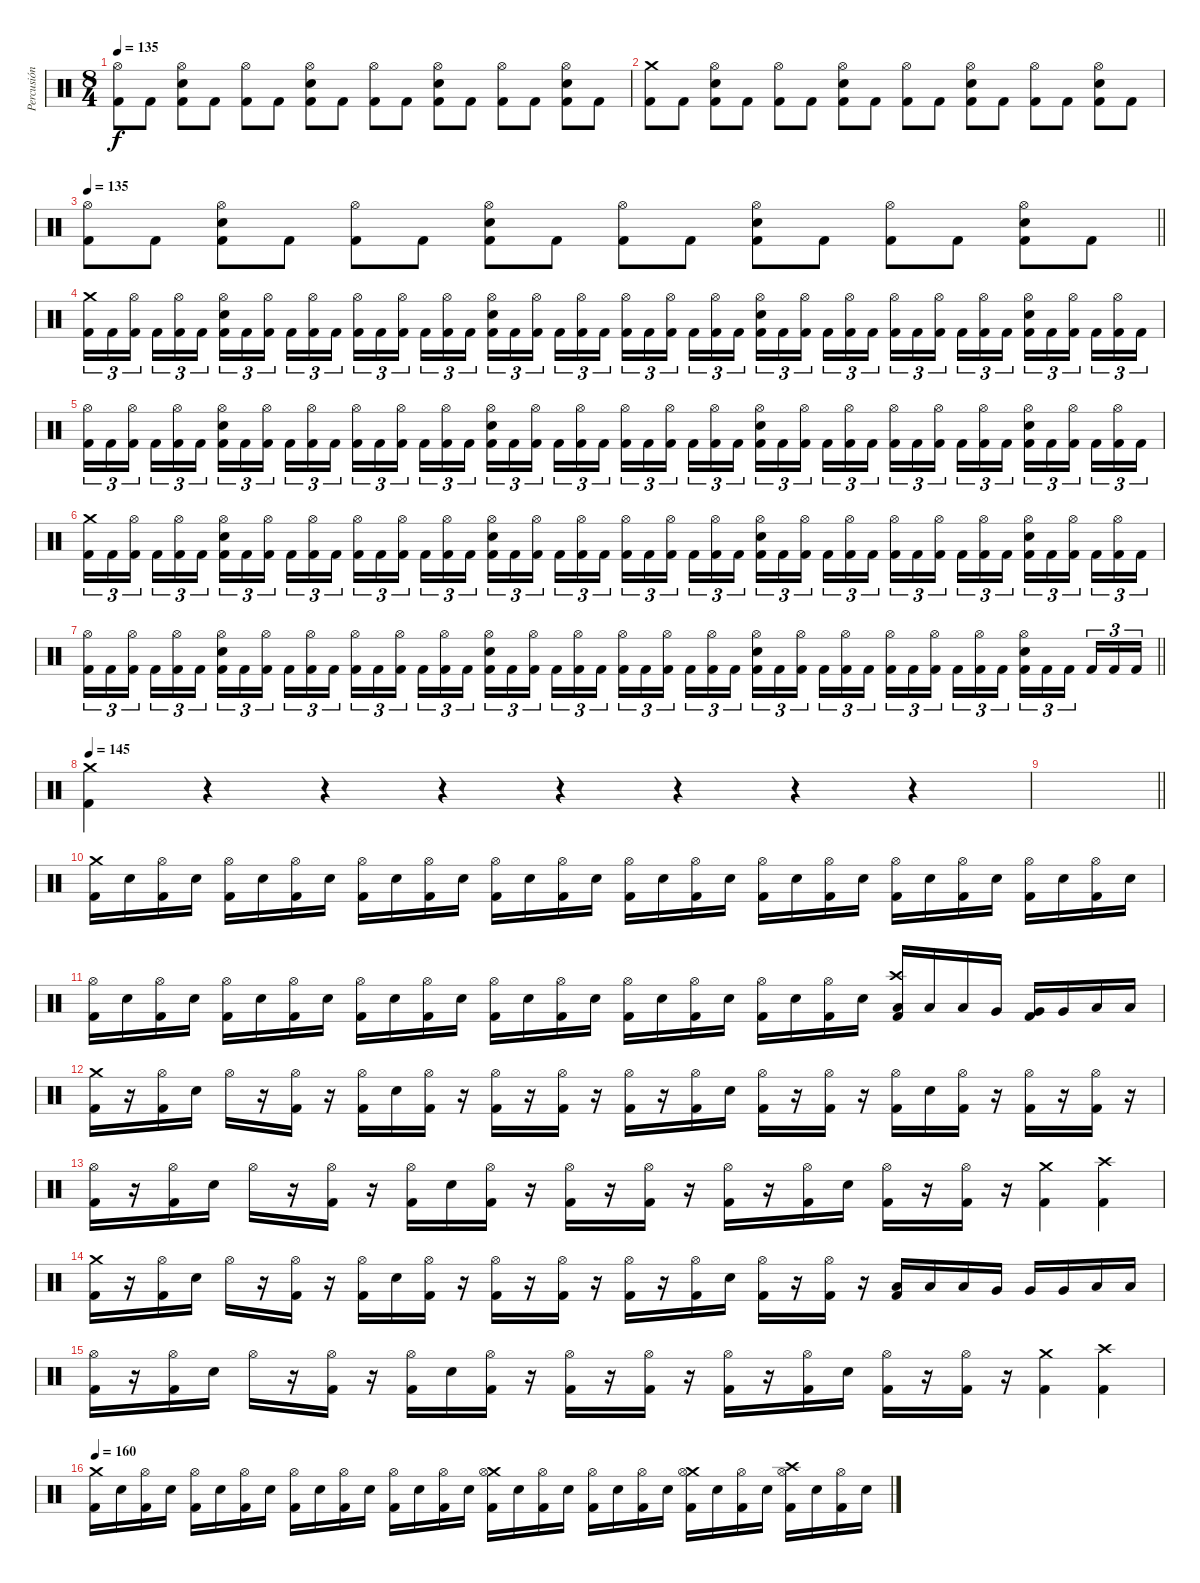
\track ("Percusión" "Percusión") {instrument percussion}
\staff {score}
\articulation defaults
\ts (8 4)
\tempo 135
\clef neutral
\ks c
("Hi-Hat (open)" "Kick (hit) 2").8{dy f} "Kick (hit) 2".8 ("Hi-Hat (open)" "Electric Snare (hit)" "Kick (hit) 2").8 "Kick (hit) 2".8 ("Hi-Hat (open)" "Kick (hit) 2").8 "Kick (hit) 2".8 ("Hi-Hat (open)" "Electric Snare (hit)" "Kick (hit) 2").8 "Kick (hit) 2".8 ("Hi-Hat (open)" "Kick (hit) 2").8 "Kick (hit) 2".8 ("Hi-Hat (open)" "Electric Snare (hit)" "Kick (hit) 2").8 "Kick (hit) 2".8 ("Hi-Hat (open)" "Kick (hit) 2").8 "Kick (hit) 2".8 ("Hi-Hat (open)" "Electric Snare (hit)" "Kick (hit) 2").8 "Kick (hit) 2".8 |
("Crash medium (hit)" "Kick (hit) 2").8 "Kick (hit) 2".8 ("Hi-Hat (open)" "Electric Snare (hit)" "Kick (hit) 2").8 "Kick (hit) 2".8 ("Hi-Hat (open)" "Kick (hit) 2").8 "Kick (hit) 2".8 ("Hi-Hat (open)" "Electric Snare (hit)" "Kick (hit) 2").8 "Kick (hit) 2".8 ("Hi-Hat (open)" "Kick (hit) 2").8 "Kick (hit) 2".8 ("Hi-Hat (open)" "Electric Snare (hit)" "Kick (hit) 2").8 "Kick (hit) 2".8 ("Hi-Hat (open)" "Kick (hit) 2").8 "Kick (hit) 2".8 ("Hi-Hat (open)" "Electric Snare (hit)" "Kick (hit) 2").8 "Kick (hit) 2".8 |
\tempo 135
\barLineRight lightlight
("Hi-Hat (open)" "Kick (hit) 2").8 "Kick (hit) 2".8 ("Hi-Hat (open)" "Electric Snare (hit)" "Kick (hit) 2").8 "Kick (hit) 2".8 ("Hi-Hat (open)" "Kick (hit) 2").8 "Kick (hit) 2".8 ("Hi-Hat (open)" "Electric Snare (hit)" "Kick (hit) 2").8 "Kick (hit) 2".8 ("Hi-Hat (open)" "Kick (hit) 2").8 "Kick (hit) 2".8 ("Hi-Hat (open)" "Electric Snare (hit)" "Kick (hit) 2").8 "Kick (hit) 2".8 ("Hi-Hat (open)" "Kick (hit) 2").8 "Kick (hit) 2".8 ("Hi-Hat (open)" "Electric Snare (hit)" "Kick (hit) 2").8 "Kick (hit) 2".8 |
("Crash medium (hit)" "Kick (hit) 2").16{tu (3 2)} "Kick (hit) 2".16{tu (3 2)} ("Hi-Hat (open)" "Kick (hit) 2").16{tu (3 2) beam splitsecondary} "Kick (hit) 2".16{tu (3 2)} ("Hi-Hat (open)" "Kick (hit) 2").16{tu (3 2)} "Kick (hit) 2".16{tu (3 2)} ("Hi-Hat (open)" "Electric Snare (hit)" "Kick (hit) 2").16{tu (3 2)} "Kick (hit) 2".16{tu (3 2)} ("Hi-Hat (open)" "Kick (hit) 2").16{tu (3 2) beam splitsecondary} "Kick (hit) 2".16{tu (3 2)} ("Hi-Hat (open)" "Kick (hit) 2").16{tu (3 2)} "Kick (hit) 2".16{tu (3 2)} ("Hi-Hat (open)" "Kick (hit) 2").16{tu (3 2)} "Kick (hit) 2".16{tu (3 2)} ("Hi-Hat (open)" "Kick (hit) 2").16{tu (3 2) beam splitsecondary} "Kick (hit) 2".16{tu (3 2)} ("Hi-Hat (open)" "Kick (hit) 2").16{tu (3 2)} "Kick (hit) 2".16{tu (3 2)} ("Hi-Hat (open)" "Electric Snare (hit)" "Kick (hit) 2").16{tu (3 2)} "Kick (hit) 2".16{tu (3 2)} ("Hi-Hat (open)" "Kick (hit) 2").16{tu (3 2) beam splitsecondary} "Kick (hit) 2".16{tu (3 2)} ("Hi-Hat (open)" "Kick (hit) 2").16{tu (3 2)} "Kick (hit) 2".16{tu (3 2)} ("Hi-Hat (open)" "Kick (hit) 2").16{tu (3 2)} "Kick (hit) 2".16{tu (3 2)} ("Hi-Hat (open)" "Kick (hit) 2").16{tu (3 2) beam splitsecondary} "Kick (hit) 2".16{tu (3 2)} ("Hi-Hat (open)" "Kick (hit) 2").16{tu (3 2)} "Kick (hit) 2".16{tu (3 2)} ("Hi-Hat (open)" "Electric Snare (hit)" "Kick (hit) 2").16{tu (3 2)} "Kick (hit) 2".16{tu (3 2)} ("Hi-Hat (open)" "Kick (hit) 2").16{tu (3 2) beam splitsecondary} "Kick (hit) 2".16{tu (3 2)} ("Hi-Hat (open)" "Kick (hit) 2").16{tu (3 2)} "Kick (hit) 2".16{tu (3 2)} ("Hi-Hat (open)" "Kick (hit) 2").16{tu (3 2)} "Kick (hit) 2".16{tu (3 2)} ("Hi-Hat (open)" "Kick (hit) 2").16{tu (3 2) beam splitsecondary} "Kick (hit) 2".16{tu (3 2)} ("Hi-Hat (open)" "Kick (hit) 2").16{tu (3 2)} "Kick (hit) 2".16{tu (3 2)} ("Hi-Hat (open)" "Electric Snare (hit)" "Kick (hit) 2").16{tu (3 2)} "Kick (hit) 2".16{tu (3 2)} ("Hi-Hat (open)" "Kick (hit) 2").16{tu (3 2) beam splitsecondary} "Kick (hit) 2".16{tu (3 2)} ("Hi-Hat (open)" "Kick (hit) 2").16{tu (3 2)} "Kick (hit) 2".16{tu (3 2)} |
("Hi-Hat (open)" "Kick (hit) 2").16{tu (3 2)} "Kick (hit) 2".16{tu (3 2)} ("Hi-Hat (open)" "Kick (hit) 2").16{tu (3 2) beam splitsecondary} "Kick (hit) 2".16{tu (3 2)} ("Hi-Hat (open)" "Kick (hit) 2").16{tu (3 2)} "Kick (hit) 2".16{tu (3 2)} ("Hi-Hat (open)" "Electric Snare (hit)" "Kick (hit) 2").16{tu (3 2)} "Kick (hit) 2".16{tu (3 2)} ("Hi-Hat (open)" "Kick (hit) 2").16{tu (3 2) beam splitsecondary} "Kick (hit) 2".16{tu (3 2)} ("Hi-Hat (open)" "Kick (hit) 2").16{tu (3 2)} "Kick (hit) 2".16{tu (3 2)} ("Hi-Hat (open)" "Kick (hit) 2").16{tu (3 2)} "Kick (hit) 2".16{tu (3 2)} ("Hi-Hat (open)" "Kick (hit) 2").16{tu (3 2) beam splitsecondary} "Kick (hit) 2".16{tu (3 2)} ("Hi-Hat (open)" "Kick (hit) 2").16{tu (3 2)} "Kick (hit) 2".16{tu (3 2)} ("Hi-Hat (open)" "Electric Snare (hit)" "Kick (hit) 2").16{tu (3 2)} "Kick (hit) 2".16{tu (3 2)} ("Hi-Hat (open)" "Kick (hit) 2").16{tu (3 2) beam splitsecondary} "Kick (hit) 2".16{tu (3 2)} ("Hi-Hat (open)" "Kick (hit) 2").16{tu (3 2)} "Kick (hit) 2".16{tu (3 2)} ("Hi-Hat (open)" "Kick (hit) 2").16{tu (3 2)} "Kick (hit) 2".16{tu (3 2)} ("Hi-Hat (open)" "Kick (hit) 2").16{tu (3 2) beam splitsecondary} "Kick (hit) 2".16{tu (3 2)} ("Hi-Hat (open)" "Kick (hit) 2").16{tu (3 2)} "Kick (hit) 2".16{tu (3 2)} ("Hi-Hat (open)" "Electric Snare (hit)" "Kick (hit) 2").16{tu (3 2)} "Kick (hit) 2".16{tu (3 2)} ("Hi-Hat (open)" "Kick (hit) 2").16{tu (3 2) beam splitsecondary} "Kick (hit) 2".16{tu (3 2)} ("Hi-Hat (open)" "Kick (hit) 2").16{tu (3 2)} "Kick (hit) 2".16{tu (3 2)} ("Hi-Hat (open)" "Kick (hit) 2").16{tu (3 2)} "Kick (hit) 2".16{tu (3 2)} ("Hi-Hat (open)" "Kick (hit) 2").16{tu (3 2) beam splitsecondary} "Kick (hit) 2".16{tu (3 2)} ("Hi-Hat (open)" "Kick (hit) 2").16{tu (3 2)} "Kick (hit) 2".16{tu (3 2)} ("Hi-Hat (open)" "Electric Snare (hit)" "Kick (hit) 2").16{tu (3 2)} "Kick (hit) 2".16{tu (3 2)} ("Hi-Hat (open)" "Kick (hit) 2").16{tu (3 2) beam splitsecondary} "Kick (hit) 2".16{tu (3 2)} ("Hi-Hat (open)" "Kick (hit) 2").16{tu (3 2)} "Kick (hit) 2".16{tu (3 2)} |
("Crash medium (hit)" "Kick (hit) 2").16{tu (3 2)} "Kick (hit) 2".16{tu (3 2)} ("Hi-Hat (open)" "Kick (hit) 2").16{tu (3 2) beam splitsecondary} "Kick (hit) 2".16{tu (3 2)} ("Hi-Hat (open)" "Kick (hit) 2").16{tu (3 2)} "Kick (hit) 2".16{tu (3 2)} ("Hi-Hat (open)" "Electric Snare (hit)" "Kick (hit) 2").16{tu (3 2)} "Kick (hit) 2".16{tu (3 2)} ("Hi-Hat (open)" "Kick (hit) 2").16{tu (3 2) beam splitsecondary} "Kick (hit) 2".16{tu (3 2)} ("Hi-Hat (open)" "Kick (hit) 2").16{tu (3 2)} "Kick (hit) 2".16{tu (3 2)} ("Hi-Hat (open)" "Kick (hit) 2").16{tu (3 2)} "Kick (hit) 2".16{tu (3 2)} ("Hi-Hat (open)" "Kick (hit) 2").16{tu (3 2) beam splitsecondary} "Kick (hit) 2".16{tu (3 2)} ("Hi-Hat (open)" "Kick (hit) 2").16{tu (3 2)} "Kick (hit) 2".16{tu (3 2)} ("Hi-Hat (open)" "Electric Snare (hit)" "Kick (hit) 2").16{tu (3 2)} "Kick (hit) 2".16{tu (3 2)} ("Hi-Hat (open)" "Kick (hit) 2").16{tu (3 2) beam splitsecondary} "Kick (hit) 2".16{tu (3 2)} ("Hi-Hat (open)" "Kick (hit) 2").16{tu (3 2)} "Kick (hit) 2".16{tu (3 2)} ("Hi-Hat (open)" "Kick (hit) 2").16{tu (3 2)} "Kick (hit) 2".16{tu (3 2)} ("Hi-Hat (open)" "Kick (hit) 2").16{tu (3 2) beam splitsecondary} "Kick (hit) 2".16{tu (3 2)} ("Hi-Hat (open)" "Kick (hit) 2").16{tu (3 2)} "Kick (hit) 2".16{tu (3 2)} ("Hi-Hat (open)" "Electric Snare (hit)" "Kick (hit) 2").16{tu (3 2)} "Kick (hit) 2".16{tu (3 2)} ("Hi-Hat (open)" "Kick (hit) 2").16{tu (3 2) beam splitsecondary} "Kick (hit) 2".16{tu (3 2)} ("Hi-Hat (open)" "Kick (hit) 2").16{tu (3 2)} "Kick (hit) 2".16{tu (3 2)} ("Hi-Hat (open)" "Kick (hit) 2").16{tu (3 2)} "Kick (hit) 2".16{tu (3 2)} ("Hi-Hat (open)" "Kick (hit) 2").16{tu (3 2) beam splitsecondary} "Kick (hit) 2".16{tu (3 2)} ("Hi-Hat (open)" "Kick (hit) 2").16{tu (3 2)} "Kick (hit) 2".16{tu (3 2)} ("Hi-Hat (open)" "Electric Snare (hit)" "Kick (hit) 2").16{tu (3 2)} "Kick (hit) 2".16{tu (3 2)} ("Hi-Hat (open)" "Kick (hit) 2").16{tu (3 2) beam splitsecondary} "Kick (hit) 2".16{tu (3 2)} ("Hi-Hat (open)" "Kick (hit) 2").16{tu (3 2)} "Kick (hit) 2".16{tu (3 2)} |
\barLineRight lightlight
("Hi-Hat (open)" "Kick (hit) 2").16{tu (3 2)} "Kick (hit) 2".16{tu (3 2)} ("Hi-Hat (open)" "Kick (hit) 2").16{tu (3 2) beam splitsecondary} "Kick (hit) 2".16{tu (3 2)} ("Hi-Hat (open)" "Kick (hit) 2").16{tu (3 2)} "Kick (hit) 2".16{tu (3 2)} ("Hi-Hat (open)" "Electric Snare (hit)" "Kick (hit) 2").16{tu (3 2)} "Kick (hit) 2".16{tu (3 2)} ("Hi-Hat (open)" "Kick (hit) 2").16{tu (3 2) beam splitsecondary} "Kick (hit) 2".16{tu (3 2)} ("Hi-Hat (open)" "Kick (hit) 2").16{tu (3 2)} "Kick (hit) 2".16{tu (3 2)} ("Hi-Hat (open)" "Kick (hit) 2").16{tu (3 2)} "Kick (hit) 2".16{tu (3 2)} ("Hi-Hat (open)" "Kick (hit) 2").16{tu (3 2) beam splitsecondary} "Kick (hit) 2".16{tu (3 2)} ("Hi-Hat (open)" "Kick (hit) 2").16{tu (3 2)} "Kick (hit) 2".16{tu (3 2)} ("Hi-Hat (open)" "Electric Snare (hit)" "Kick (hit) 2").16{tu (3 2)} "Kick (hit) 2".16{tu (3 2)} ("Hi-Hat (open)" "Kick (hit) 2").16{tu (3 2) beam splitsecondary} "Kick (hit) 2".16{tu (3 2)} ("Hi-Hat (open)" "Kick (hit) 2").16{tu (3 2)} "Kick (hit) 2".16{tu (3 2)} ("Hi-Hat (open)" "Kick (hit) 2").16{tu (3 2)} "Kick (hit) 2".16{tu (3 2)} ("Hi-Hat (open)" "Kick (hit) 2").16{tu (3 2) beam splitsecondary} "Kick (hit) 2".16{tu (3 2)} ("Hi-Hat (open)" "Kick (hit) 2").16{tu (3 2)} "Kick (hit) 2".16{tu (3 2)} ("Hi-Hat (open)" "Electric Snare (hit)" "Kick (hit) 2").16{tu (3 2)} "Kick (hit) 2".16{tu (3 2)} ("Hi-Hat (open)" "Kick (hit) 2").16{tu (3 2) beam splitsecondary} "Kick (hit) 2".16{tu (3 2)} ("Hi-Hat (open)" "Kick (hit) 2").16{tu (3 2)} "Kick (hit) 2".16{tu (3 2)} ("Hi-Hat (open)" "Kick (hit) 2").16{tu (3 2)} "Kick (hit) 2".16{tu (3 2)} ("Hi-Hat (open)" "Kick (hit) 2").16{tu (3 2) beam splitsecondary} "Kick (hit) 2".16{tu (3 2)} ("Hi-Hat (open)" "Kick (hit) 2").16{tu (3 2)} "Kick (hit) 2".16{tu (3 2)} ("Hi-Hat (open)" "Electric Snare (hit)" "Kick (hit) 2").16{tu (3 2)} "Kick (hit) 2".16{tu (3 2)} "Kick (hit) 2".16{tu (3 2) beam splitsecondary} "Kick (hit) 2".16{tu (3 2)} "Kick (hit) 2".16{tu (3 2)} "Kick (hit) 2".16{tu (3 2)} |
\tempo 145
("Crash medium (hit)" "Kick (hit) 2").4 r.4 r.4 r.4 r.4 r.4 r.4 r.4 |
\barLineRight lightlight
|
("Crash medium (hit)" "Kick (hit) 2").16 "Electric Snare (hit)".16 ("Hi-Hat (open)" "Kick (hit) 2").16 "Electric Snare (hit)".16 ("Hi-Hat (open)" "Kick (hit) 2").16 "Electric Snare (hit)".16 ("Hi-Hat (open)" "Kick (hit) 2").16 "Electric Snare (hit)".16 ("Hi-Hat (open)" "Kick (hit) 2").16 "Electric Snare (hit)".16 ("Hi-Hat (open)" "Kick (hit) 2").16 "Electric Snare (hit)".16 ("Hi-Hat (open)" "Kick (hit) 2").16 "Electric Snare (hit)".16 ("Hi-Hat (open)" "Kick (hit) 2").16 "Electric Snare (hit)".16 ("Hi-Hat (open)" "Kick (hit) 2").16 "Electric Snare (hit)".16 ("Hi-Hat (open)" "Kick (hit) 2").16 "Electric Snare (hit)".16 ("Hi-Hat (open)" "Kick (hit) 2").16 "Electric Snare (hit)".16 ("Hi-Hat (open)" "Kick (hit) 2").16 "Electric Snare (hit)".16 ("Hi-Hat (open)" "Kick (hit) 2").16 "Electric Snare (hit)".16 ("Hi-Hat (open)" "Kick (hit) 2").16 "Electric Snare (hit)".16 ("Hi-Hat (open)" "Kick (hit) 2").16 "Electric Snare (hit)".16 ("Hi-Hat (open)" "Kick (hit) 2").16 "Electric Snare (hit)".16 |
("Hi-Hat (open)" "Kick (hit) 2").16 "Electric Snare (hit)".16 ("Hi-Hat (open)" "Kick (hit) 2").16 "Electric Snare (hit)".16 ("Hi-Hat (open)" "Kick (hit) 2").16 "Electric Snare (hit)".16 ("Hi-Hat (open)" "Kick (hit) 2").16 "Electric Snare (hit)".16 ("Hi-Hat (open)" "Kick (hit) 2").16 "Electric Snare (hit)".16 ("Hi-Hat (open)" "Kick (hit) 2").16 "Electric Snare (hit)".16 ("Hi-Hat (open)" "Kick (hit) 2").16 "Electric Snare (hit)".16 ("Hi-Hat (open)" "Kick (hit) 2").16 "Electric Snare (hit)".16 ("Hi-Hat (open)" "Kick (hit) 2").16 "Electric Snare (hit)".16 ("Hi-Hat (open)" "Kick (hit) 2").16 "Electric Snare (hit)".16 ("Hi-Hat (open)" "Kick (hit) 2").16 "Electric Snare (hit)".16 ("Hi-Hat (open)" "Kick (hit) 2").16 "Electric Snare (hit)".16 ("Crash high (hit)" "Low Tom (hit)" "Kick (hit) 2").16 "Low Tom (hit)".16 "Low Tom (hit)".16 "Very Low Tom (hit)".16 ("Very Low Tom (hit)" "Kick (hit) 2").16 "Very Low Tom (hit)".16 "Low Floor Tom (hit)".16 "Low Floor Tom (hit)".16 |
("Crash medium (hit)" "Kick (hit) 2").16 r.16 ("Hi-Hat (open)" "Kick (hit) 2").16 "Electric Snare (hit)".16 "Hi-Hat (open)".16 r.16 ("Hi-Hat (open)" "Kick (hit) 2").16 r.16 ("Hi-Hat (open)" "Kick (hit) 2").16 "Electric Snare (hit)".16 ("Hi-Hat (open)" "Kick (hit) 2").16 r.16 ("Hi-Hat (open)" "Kick (hit) 2").16 r.16 ("Hi-Hat (open)" "Kick (hit) 2").16 r.16 ("Hi-Hat (open)" "Kick (hit) 2").16 r.16 ("Hi-Hat (open)" "Kick (hit) 2").16 "Electric Snare (hit)".16 ("Hi-Hat (open)" "Kick (hit) 2").16 r.16 ("Hi-Hat (open)" "Kick (hit) 2").16 r.16 ("Hi-Hat (open)" "Kick (hit) 2").16 "Electric Snare (hit)".16 ("Hi-Hat (open)" "Kick (hit) 2").16 r.16 ("Hi-Hat (open)" "Kick (hit) 2").16 r.16 ("Hi-Hat (open)" "Kick (hit) 2").16 r.16 |
("Hi-Hat (open)" "Kick (hit) 2").16 r.16 ("Hi-Hat (open)" "Kick (hit) 2").16 "Electric Snare (hit)".16 "Hi-Hat (open)".16 r.16 ("Hi-Hat (open)" "Kick (hit) 2").16 r.16 ("Hi-Hat (open)" "Kick (hit) 2").16 "Electric Snare (hit)".16 ("Hi-Hat (open)" "Kick (hit) 2").16 r.16 ("Hi-Hat (open)" "Kick (hit) 2").16 r.16 ("Hi-Hat (open)" "Kick (hit) 2").16 r.16 ("Hi-Hat (open)" "Kick (hit) 2").16 r.16 ("Hi-Hat (open)" "Kick (hit) 2").16 "Electric Snare (hit)".16 ("Hi-Hat (open)" "Kick (hit) 2").16 r.16 ("Hi-Hat (open)" "Kick (hit) 2").16 r.16 ("Crash medium (hit)" "Kick (hit) 2").4 ("Crash high (hit)" "Kick (hit) 2").4 |
("Crash medium (hit)" "Kick (hit) 2").16 r.16 ("Hi-Hat (open)" "Kick (hit) 2").16 "Electric Snare (hit)".16 "Hi-Hat (open)".16 r.16 ("Hi-Hat (open)" "Kick (hit) 2").16 r.16 ("Hi-Hat (open)" "Kick (hit) 2").16 "Electric Snare (hit)".16 ("Hi-Hat (open)" "Kick (hit) 2").16 r.16 ("Hi-Hat (open)" "Kick (hit) 2").16 r.16 ("Hi-Hat (open)" "Kick (hit) 2").16 r.16 ("Hi-Hat (open)" "Kick (hit) 2").16 r.16 ("Hi-Hat (open)" "Kick (hit) 2").16 "Electric Snare (hit)".16 ("Hi-Hat (open)" "Kick (hit) 2").16 r.16 ("Hi-Hat (open)" "Kick (hit) 2").16 r.16 ("Low Tom (hit)" "Kick (hit) 2").16 "Low Tom (hit)".16 "Low Tom (hit)".16 "Very Low Tom (hit)".16 "Very Low Tom (hit)".16 "Very Low Tom (hit)".16 "Low Floor Tom (hit)".16 "Low Floor Tom (hit)".16 |
("Hi-Hat (open)" "Kick (hit) 2").16 r.16 ("Hi-Hat (open)" "Kick (hit) 2").16 "Electric Snare (hit)".16 "Hi-Hat (open)".16 r.16 ("Hi-Hat (open)" "Kick (hit) 2").16 r.16 ("Hi-Hat (open)" "Kick (hit) 2").16 "Electric Snare (hit)".16 ("Hi-Hat (open)" "Kick (hit) 2").16 r.16 ("Hi-Hat (open)" "Kick (hit) 2").16 r.16 ("Hi-Hat (open)" "Kick (hit) 2").16 r.16 ("Hi-Hat (open)" "Kick (hit) 2").16 r.16 ("Hi-Hat (open)" "Kick (hit) 2").16 "Electric Snare (hit)".16 ("Hi-Hat (open)" "Kick (hit) 2").16 r.16 ("Hi-Hat (open)" "Kick (hit) 2").16 r.16 ("Crash medium (hit)" "Kick (hit) 2").4 ("Crash high (hit)" "Kick (hit) 2").4 |
\tempo 160
("Crash medium (hit)" "Kick (hit) 2").16 "Electric Snare (hit)".16 ("Hi-Hat (open)" "Kick (hit) 2").16 "Electric Snare (hit)".16 ("Hi-Hat (open)" "Kick (hit) 2").16 "Electric Snare (hit)".16 ("Hi-Hat (open)" "Kick (hit) 2").16 "Electric Snare (hit)".16 ("Hi-Hat (open)" "Kick (hit) 2").16 "Electric Snare (hit)".16 ("Hi-Hat (open)" "Kick (hit) 2").16 "Electric Snare (hit)".16 ("Hi-Hat (open)" "Kick (hit) 2").16 "Electric Snare (hit)".16 ("Hi-Hat (open)" "Kick (hit) 2").16 "Electric Snare (hit)".16 ("Crash medium (hit)" "Hi-Hat (open)" "Kick (hit) 2").16 "Electric Snare (hit)".16 ("Hi-Hat (open)" "Kick (hit) 2").16 "Electric Snare (hit)".16 ("Hi-Hat (open)" "Kick (hit) 2").16 "Electric Snare (hit)".16 ("Hi-Hat (open)" "Kick (hit) 2").16 "Electric Snare (hit)".16 ("Crash medium (hit)" "Hi-Hat (open)" "Kick (hit) 2").16 "Electric Snare (hit)".16 ("Hi-Hat (open)" "Kick (hit) 2").16 "Electric Snare (hit)".16 ("Crash high (hit)" "Hi-Hat (open)" "Kick (hit) 2").16 "Electric Snare (hit)".16 ("Hi-Hat (open)" "Kick (hit) 2").16 "Electric Snare (hit)".16
